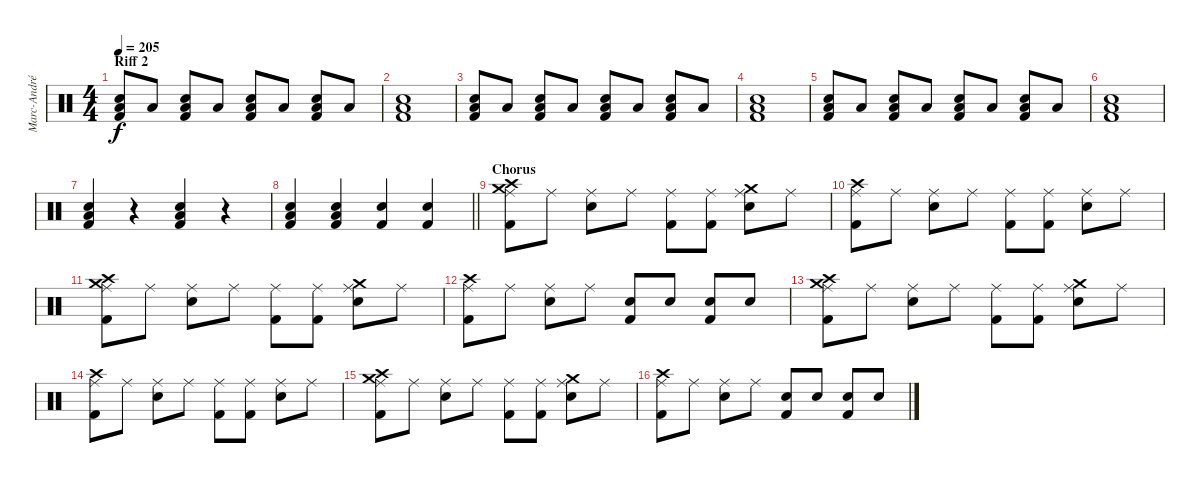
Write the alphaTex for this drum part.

\track ("Marc-André Barabé" "Marc-André") {instrument percussion}
\staff {score}
\articulation defaults
\ts (4 4)
\section ("" "Riff 2")
\tempo 205
\clef neutral
\ks c
("Electric Snare (hit)" "Low Floor Tom (hit)" "Kick (hit) 2").8{dy f} "Low Floor Tom (hit)".8 ("Electric Snare (hit)" "Low Floor Tom (hit)" "Kick (hit) 2"{tr (2 32)}).8 "Low Floor Tom (hit)".8 ("Electric Snare (hit)" "Low Floor Tom (hit)" "Kick (hit) 2").8 "Low Floor Tom (hit)".8 ("Electric Snare (hit)" "Low Floor Tom (hit)" "Kick (hit) 2"{tr (2 32)}).8 "Low Floor Tom (hit)".8 |
("Electric Snare (hit)" "Low Floor Tom (hit)" "Kick (hit) 2").1 |
("Electric Snare (hit)" "Low Floor Tom (hit)" "Kick (hit) 2").8 "Low Floor Tom (hit)".8 ("Electric Snare (hit)" "Low Floor Tom (hit)" "Kick (hit) 2"{tr (2 32)}).8 "Low Floor Tom (hit)".8 ("Electric Snare (hit)" "Low Floor Tom (hit)" "Kick (hit) 2").8 "Low Floor Tom (hit)".8 ("Electric Snare (hit)" "Low Floor Tom (hit)" "Kick (hit) 2"{tr (2 32)}).8 "Low Floor Tom (hit)".8 |
("Electric Snare (hit)" "Low Floor Tom (hit)" "Kick (hit) 2").1 |
("Electric Snare (hit)" "Low Floor Tom (hit)" "Kick (hit) 2").8 "Low Floor Tom (hit)".8 ("Electric Snare (hit)" "Low Floor Tom (hit)" "Kick (hit) 2"{tr (2 32)}).8 "Low Floor Tom (hit)".8 ("Electric Snare (hit)" "Low Floor Tom (hit)" "Kick (hit) 2").8 "Low Floor Tom (hit)".8 ("Electric Snare (hit)" "Low Floor Tom (hit)" "Kick (hit) 2"{tr (2 32)}).8 "Low Floor Tom (hit)".8 |
("Electric Snare (hit)" "Low Floor Tom (hit)" "Kick (hit) 2").1 |
("Electric Snare (hit)" "Low Floor Tom (hit)" "Kick (hit) 2").4 r.4 ("Electric Snare (hit)" "Low Floor Tom (hit)" "Kick (hit) 2").4 r.4 |
\barLineRight lightlight
("Electric Snare (hit)" "Low Floor Tom (hit)" "Kick (hit) 2").4 ("Electric Snare (hit)" "Low Floor Tom (hit)" "Kick (hit) 2").4 ("Electric Snare (hit)"{tr (4 32)} "Kick (hit) 2").4 ("Electric Snare (hit)"{tr (4 32)} "Kick (hit) 2").4 |
\section ("" "Chorus")
("Crash high (hit)" "Crash medium (hit)" "Ride (middle)" "Kick (hit) 2").8 "Ride (middle)".8 ("Ride (middle)" "Electric Snare (hit)").8 "Ride (middle)".8 ("Ride (middle)" "Kick (hit) 2").8 ("Ride (middle)" "Kick (hit) 2").8 ("Crash medium (hit)" "Ride (middle)" "Electric Snare (hit)").8 "Ride (middle)".8 |
("Crash high (hit)" "Ride (middle)" "Kick (hit) 2").8 "Ride (middle)".8 ("Ride (middle)" "Electric Snare (hit)").8 "Ride (middle)".8 ("Ride (middle)" "Kick (hit) 2").8 ("Ride (middle)" "Kick (hit) 2").8 ("Ride (middle)" "Electric Snare (hit)").8 "Ride (middle)".8 |
("Crash high (hit)" "Crash medium (hit)" "Ride (middle)" "Kick (hit) 2").8 "Ride (middle)".8 ("Ride (middle)" "Electric Snare (hit)").8 "Ride (middle)".8 ("Ride (middle)" "Kick (hit) 2").8 ("Ride (middle)" "Kick (hit) 2").8 ("Crash medium (hit)" "Ride (middle)" "Electric Snare (hit)").8 "Ride (middle)".8 |
("Crash high (hit)" "Ride (middle)" "Kick (hit) 2").8 "Ride (middle)".8 ("Ride (middle)" "Electric Snare (hit)").8 "Ride (middle)".8 ("Electric Snare (hit)"{tr (4 32)} "Kick (hit) 2").8 "Electric Snare (hit)"{tr (4 32)}.8 ("Electric Snare (hit)"{tr (4 32)} "Kick (hit) 2").8 "Electric Snare (hit)"{tr (4 32)}.8 |
("Crash high (hit)" "Crash medium (hit)" "Ride (middle)" "Kick (hit) 2").8 "Ride (middle)".8 ("Ride (middle)" "Electric Snare (hit)").8 "Ride (middle)".8 ("Ride (middle)" "Kick (hit) 2").8 ("Ride (middle)" "Kick (hit) 2").8 ("Crash medium (hit)" "Ride (middle)" "Electric Snare (hit)").8 "Ride (middle)".8 |
("Crash high (hit)" "Ride (middle)" "Kick (hit) 2").8 "Ride (middle)".8 ("Ride (middle)" "Electric Snare (hit)").8 "Ride (middle)".8 ("Ride (middle)" "Kick (hit) 2").8 ("Ride (middle)" "Kick (hit) 2").8 ("Ride (middle)" "Electric Snare (hit)").8 "Ride (middle)".8 |
("Crash high (hit)" "Crash medium (hit)" "Ride (middle)" "Kick (hit) 2").8 "Ride (middle)".8 ("Ride (middle)" "Electric Snare (hit)").8 "Ride (middle)".8 ("Ride (middle)" "Kick (hit) 2").8 ("Ride (middle)" "Kick (hit) 2").8 ("Crash medium (hit)" "Ride (middle)" "Electric Snare (hit)").8 "Ride (middle)".8 |
("Crash high (hit)" "Ride (middle)" "Kick (hit) 2").8 "Ride (middle)".8 ("Ride (middle)" "Electric Snare (hit)").8 "Ride (middle)".8 ("Electric Snare (hit)"{tr (4 32)} "Kick (hit) 2").8 "Electric Snare (hit)"{tr (4 32)}.8 ("Electric Snare (hit)"{tr (4 32)} "Kick (hit) 2").8 "Electric Snare (hit)"{tr (4 32)}.8
